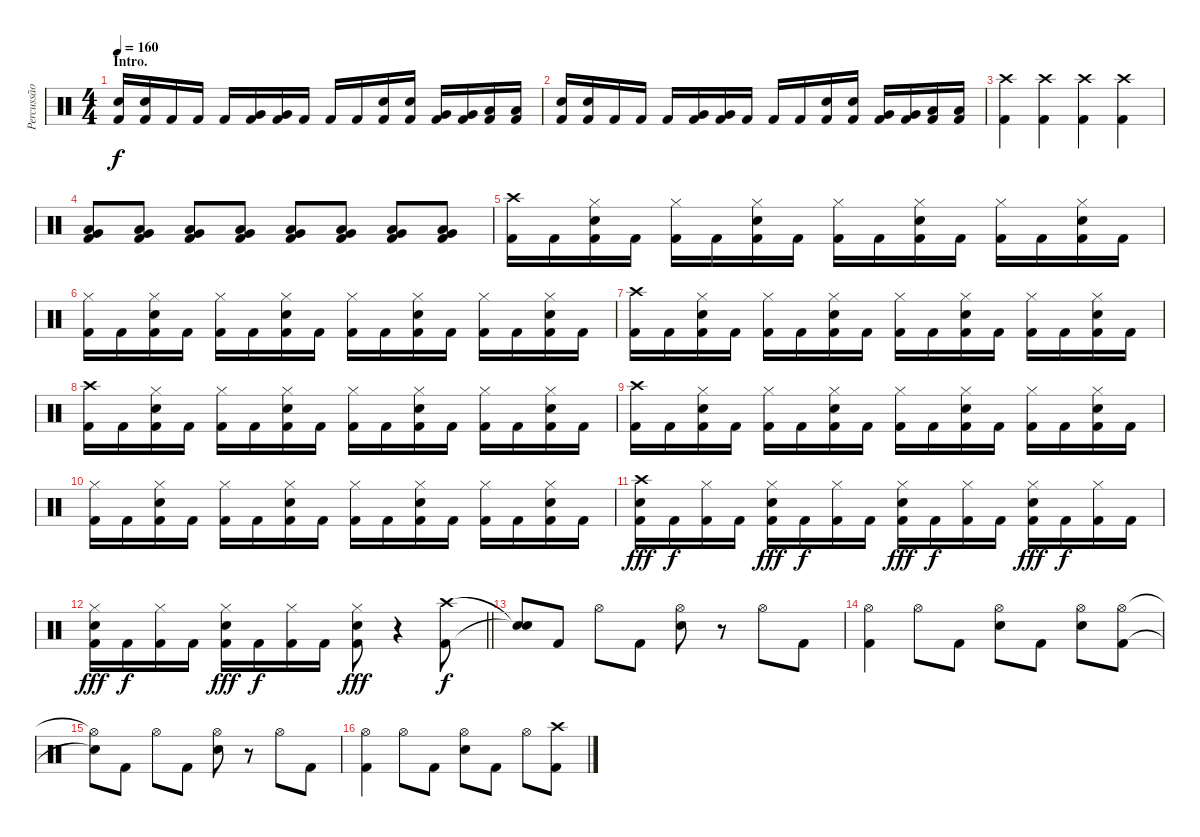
\track ("Percussão" "Percussão") {instrument percussion}
\staff {score}
\articulation defaults
\ts (4 4)
\section ("" "Intro.")
\tempo 160
\clef neutral
\ks c
("Electric Snare (hit)" "Kick (hit) 2").16{dy f} ("Electric Snare (hit)" "Kick (hit) 2").16 "Kick (hit) 2".16 "Kick (hit) 2".16 "Kick (hit) 2".16 ("Very Low Tom (hit)" "Kick (hit) 2").16 ("Very Low Tom (hit)" "Kick (hit) 2").16 "Kick (hit) 2".16 "Kick (hit) 2".16 "Kick (hit) 2".16 ("Electric Snare (hit)" "Kick (hit) 2").16 ("Electric Snare (hit)" "Kick (hit) 2").16 ("Very Low Tom (hit)" "Kick (hit) 2").16 ("Very Low Tom (hit)" "Kick (hit) 2").16 ("Low Floor Tom (hit)" "Kick (hit) 2").16 ("Low Floor Tom (hit)" "Kick (hit) 2").16 |
("Electric Snare (hit)" "Kick (hit) 2").16 ("Electric Snare (hit)" "Kick (hit) 2").16 "Kick (hit) 2".16 "Kick (hit) 2".16 "Kick (hit) 2".16 ("Very Low Tom (hit)" "Kick (hit) 2").16 ("Very Low Tom (hit)" "Kick (hit) 2").16 "Kick (hit) 2".16 "Kick (hit) 2".16 "Kick (hit) 2".16 ("Electric Snare (hit)" "Kick (hit) 2").16 ("Electric Snare (hit)" "Kick (hit) 2").16 ("Very Low Tom (hit)" "Kick (hit) 2").16 ("Very Low Tom (hit)" "Kick (hit) 2").16 ("Low Floor Tom (hit)" "Kick (hit) 2").16 ("Low Floor Tom (hit)" "Kick (hit) 2").16 |
("Crash high (hit)" "Kick (hit) 2").4 ("Crash high (hit)" "Kick (hit) 2").4 ("Crash high (hit)" "Kick (hit) 2").4 ("Crash high (hit)" "Kick (hit) 2").4 |
("Low Floor Tom (hit)" "Very Low Tom (hit)" "Kick (hit) 2").8{volume 0} ("Low Floor Tom (hit)" "Very Low Tom (hit)" "Kick (hit) 2").8{volume 16} ("Low Floor Tom (hit)" "Very Low Tom (hit)" "Kick (hit) 2").8 ("Low Floor Tom (hit)" "Very Low Tom (hit)" "Kick (hit) 2").8 ("Low Floor Tom (hit)" "Very Low Tom (hit)" "Kick (hit) 2").8 ("Low Floor Tom (hit)" "Very Low Tom (hit)" "Kick (hit) 2").8 ("Low Floor Tom (hit)" "Very Low Tom (hit)" "Kick (hit) 2").8 ("Low Floor Tom (hit)" "Very Low Tom (hit)" "Kick (hit) 2").8 |
("Crash high (hit)" "Kick (hit) 2").16 "Kick (hit) 2".16 ("Hi-Hat (closed)" "Electric Snare (hit)" "Kick (hit) 2").16 "Kick (hit) 2".16 ("Hi-Hat (closed)" "Kick (hit) 2").16 "Kick (hit) 2".16 ("Hi-Hat (closed)" "Electric Snare (hit)" "Kick (hit) 2").16 "Kick (hit) 2".16 ("Hi-Hat (closed)" "Kick (hit) 2").16 "Kick (hit) 2".16 ("Hi-Hat (closed)" "Electric Snare (hit)" "Kick (hit) 2").16 "Kick (hit) 2".16 ("Hi-Hat (closed)" "Kick (hit) 2").16 "Kick (hit) 2".16 ("Hi-Hat (closed)" "Electric Snare (hit)" "Kick (hit) 2").16 "Kick (hit) 2".16 |
("Hi-Hat (closed)" "Kick (hit) 2").16 "Kick (hit) 2".16 ("Hi-Hat (closed)" "Electric Snare (hit)" "Kick (hit) 2").16 "Kick (hit) 2".16 ("Hi-Hat (closed)" "Kick (hit) 2").16 "Kick (hit) 2".16 ("Hi-Hat (closed)" "Electric Snare (hit)" "Kick (hit) 2").16 "Kick (hit) 2".16 ("Hi-Hat (closed)" "Kick (hit) 2").16 "Kick (hit) 2".16 ("Hi-Hat (closed)" "Electric Snare (hit)" "Kick (hit) 2").16 "Kick (hit) 2".16 ("Hi-Hat (closed)" "Kick (hit) 2").16 "Kick (hit) 2".16 ("Hi-Hat (closed)" "Electric Snare (hit)" "Kick (hit) 2").16 "Kick (hit) 2".16 |
("Crash high (hit)" "Kick (hit) 2").16 "Kick (hit) 2".16 ("Hi-Hat (closed)" "Electric Snare (hit)" "Kick (hit) 2").16 "Kick (hit) 2".16 ("Hi-Hat (closed)" "Kick (hit) 2").16 "Kick (hit) 2".16 ("Hi-Hat (closed)" "Electric Snare (hit)" "Kick (hit) 2").16 "Kick (hit) 2".16 ("Hi-Hat (closed)" "Kick (hit) 2").16 "Kick (hit) 2".16 ("Hi-Hat (closed)" "Electric Snare (hit)" "Kick (hit) 2").16 "Kick (hit) 2".16 ("Hi-Hat (closed)" "Kick (hit) 2").16 "Kick (hit) 2".16 ("Hi-Hat (closed)" "Electric Snare (hit)" "Kick (hit) 2").16 "Kick (hit) 2".16 |
("Crash high (hit)" "Kick (hit) 2").16 "Kick (hit) 2".16 ("Hi-Hat (closed)" "Electric Snare (hit)" "Kick (hit) 2").16 "Kick (hit) 2".16 ("Hi-Hat (closed)" "Kick (hit) 2").16 "Kick (hit) 2".16 ("Hi-Hat (closed)" "Electric Snare (hit)" "Kick (hit) 2").16 "Kick (hit) 2".16 ("Hi-Hat (closed)" "Kick (hit) 2").16 "Kick (hit) 2".16 ("Hi-Hat (closed)" "Electric Snare (hit)" "Kick (hit) 2").16 "Kick (hit) 2".16 ("Hi-Hat (closed)" "Kick (hit) 2").16 "Kick (hit) 2".16 ("Hi-Hat (closed)" "Electric Snare (hit)" "Kick (hit) 2").16 "Kick (hit) 2".16 |
("Crash high (hit)" "Kick (hit) 2").16 "Kick (hit) 2".16 ("Hi-Hat (closed)" "Electric Snare (hit)" "Kick (hit) 2").16 "Kick (hit) 2".16 ("Hi-Hat (closed)" "Kick (hit) 2").16 "Kick (hit) 2".16 ("Hi-Hat (closed)" "Electric Snare (hit)" "Kick (hit) 2").16 "Kick (hit) 2".16 ("Hi-Hat (closed)" "Kick (hit) 2").16 "Kick (hit) 2".16 ("Hi-Hat (closed)" "Electric Snare (hit)" "Kick (hit) 2").16 "Kick (hit) 2".16 ("Hi-Hat (closed)" "Kick (hit) 2").16 "Kick (hit) 2".16 ("Hi-Hat (closed)" "Electric Snare (hit)" "Kick (hit) 2").16 "Kick (hit) 2".16 |
("Hi-Hat (closed)" "Kick (hit) 2").16 "Kick (hit) 2".16 ("Hi-Hat (closed)" "Electric Snare (hit)" "Kick (hit) 2").16 "Kick (hit) 2".16 ("Hi-Hat (closed)" "Kick (hit) 2").16 "Kick (hit) 2".16 ("Hi-Hat (closed)" "Electric Snare (hit)" "Kick (hit) 2").16 "Kick (hit) 2".16 ("Hi-Hat (closed)" "Kick (hit) 2").16 "Kick (hit) 2".16 ("Hi-Hat (closed)" "Electric Snare (hit)" "Kick (hit) 2").16 "Kick (hit) 2".16 ("Hi-Hat (closed)" "Kick (hit) 2").16 "Kick (hit) 2".16 ("Hi-Hat (closed)" "Electric Snare (hit)" "Kick (hit) 2").16 "Kick (hit) 2".16 |
("Crash high (hit)" "Electric Snare (hit)" "Kick (hit) 2").16{dy fff} "Kick (hit) 2".16{dy f} ("Hi-Hat (closed)" "Kick (hit) 2").16 "Kick (hit) 2".16 ("Hi-Hat (closed)" "Electric Snare (hit)" "Kick (hit) 2").16{dy fff} "Kick (hit) 2".16{dy f} ("Hi-Hat (closed)" "Kick (hit) 2").16 "Kick (hit) 2".16 ("Hi-Hat (closed)" "Electric Snare (hit)" "Kick (hit) 2").16{dy fff} "Kick (hit) 2".16{dy f} ("Hi-Hat (closed)" "Kick (hit) 2").16 "Kick (hit) 2".16 ("Hi-Hat (closed)" "Electric Snare (hit)" "Kick (hit) 2").16{dy fff} "Kick (hit) 2".16{dy f} ("Hi-Hat (closed)" "Kick (hit) 2").16 "Kick (hit) 2".16 |
\barLineRight lightlight
("Hi-Hat (closed)" "Electric Snare (hit)" "Kick (hit) 2").16{dy fff} "Kick (hit) 2".16{dy f} ("Hi-Hat (closed)" "Kick (hit) 2").16 "Kick (hit) 2".16 ("Hi-Hat (closed)" "Electric Snare (hit)" "Kick (hit) 2").16{dy fff} "Kick (hit) 2".16{dy f} ("Hi-Hat (closed)" "Kick (hit) 2").16 "Kick (hit) 2".16 ("Hi-Hat (closed)" "Electric Snare (hit)" "Kick (hit) 2").8{dy fff} r.4 ("Crash high (hit)" "Kick (hit) 2").8{dy f} |
("Snare (hit)"{t} "Snare (hit)"{t}).8 "Kick (hit) 2".8 "Hi-Hat (open)".8 "Kick (hit) 2".8 ("Hi-Hat (open)" "Electric Snare (hit)").8 r.8 "Hi-Hat (open)".8 "Kick (hit) 2".8 |
("Hi-Hat (open)" "Kick (hit) 2").4 "Hi-Hat (open)".8 "Kick (hit) 2".8 ("Hi-Hat (open)" "Electric Snare (hit)").8 "Kick (hit) 2".8 ("Hi-Hat (open)" "Electric Snare (hit)").8 ("Hi-Hat (open)" "Kick (hit) 2").8 |
("Hi-Hat (open)"{t} "Snare (hit)"{t}).8 "Kick (hit) 2".8 "Hi-Hat (open)".8 "Kick (hit) 2".8 ("Hi-Hat (open)" "Electric Snare (hit)").8 r.8 "Hi-Hat (open)".8 "Kick (hit) 2".8 |
("Hi-Hat (open)" "Kick (hit) 2").4 "Hi-Hat (open)".8 "Kick (hit) 2".8 ("Hi-Hat (open)" "Electric Snare (hit)").8 "Kick (hit) 2".8 "Hi-Hat (open)".8 ("Crash high (hit)" "Kick (hit) 2").8
